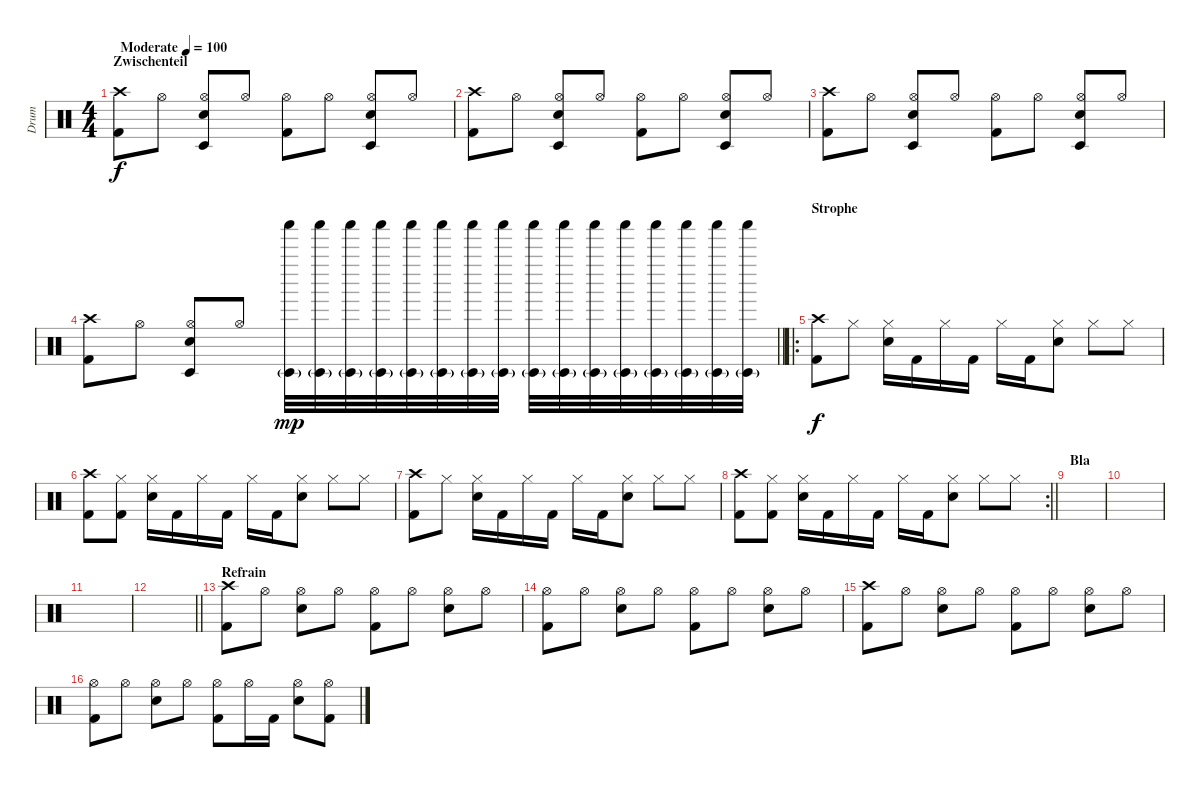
\track ("Drum" "Drum") {instrument percussion}
\staff {score}
\articulation defaults
\ts (4 4)
\section ("" "Zwischenteil")
\tempo (100 "Moderate")
\clef neutral
\ks c
("Crash high (hit)" "Kick (hit) 2").8{dy f} "Hi-Hat (open)".8 ("Hi-Hat (open)" "Electric Snare (hit)" "Timbale low (hit)").8 "Hi-Hat (open)".8 ("Hi-Hat (open)" "Kick (hit) 2").8 "Hi-Hat (open)".8 ("Hi-Hat (open)" "Electric Snare (hit)" "Timbale low (hit)").8 "Hi-Hat (open)".8 |
("Crash high (hit)" "Kick (hit) 2").8 "Hi-Hat (open)".8 ("Hi-Hat (open)" "Electric Snare (hit)" "Timbale low (hit)").8 "Hi-Hat (open)".8 ("Hi-Hat (open)" "Kick (hit) 2").8 "Hi-Hat (open)".8 ("Hi-Hat (open)" "Electric Snare (hit)" "Timbale low (hit)").8 "Hi-Hat (open)".8 |
("Crash high (hit)" "Kick (hit) 2").8 "Hi-Hat (open)".8 ("Hi-Hat (open)" "Electric Snare (hit)" "Timbale low (hit)").8 "Hi-Hat (open)".8 ("Hi-Hat (open)" "Kick (hit) 2").8 "Hi-Hat (open)".8 ("Hi-Hat (open)" "Electric Snare (hit)" "Timbale low (hit)").8 "Hi-Hat (open)".8 |
\barLineRight lightlight
("Crash high (hit)" "Kick (hit) 2").8 "Hi-Hat (open)".8 ("Hi-Hat (open)" "Electric Snare (hit)" "Timbale low (hit)").8 "Hi-Hat (open)".8 ("Timbale low (hit)"{g} "Shaker (hit)").32{dy mp} ("Timbale low (hit)"{g} "Shaker (hit)").32 ("Timbale low (hit)"{g} "Shaker (hit)").32 ("Timbale low (hit)"{g} "Shaker (hit)").32 ("Timbale low (hit)"{g} "Shaker (hit)").32 ("Timbale low (hit)"{g} "Shaker (hit)").32 ("Timbale low (hit)"{g} "Shaker (hit)").32 ("Timbale low (hit)"{g} "Shaker (hit)").32 ("Timbale low (hit)"{g} "Shaker (hit)").32 ("Timbale low (hit)"{g} "Shaker (hit)").32 ("Timbale low (hit)"{g} "Shaker (hit)").32 ("Timbale low (hit)"{g} "Shaker (hit)").32 ("Timbale low (hit)"{g} "Shaker (hit)").32 ("Timbale low (hit)"{g} "Shaker (hit)").32 ("Timbale low (hit)"{g} "Shaker (hit)").32 ("Timbale low (hit)"{g} "Shaker (hit)").32 |
\ro
\section ("" "Strophe")
("Crash high (hit)" "Kick (hit) 2").8{dy f} "Hi-Hat (closed)".8 ("Hi-Hat (closed)" "Electric Snare (hit)").16 "Kick (hit) 2".16 "Hi-Hat (closed)".16 "Kick (hit) 2".16 "Hi-Hat (closed)".16 "Kick (hit) 2".16 ("Hi-Hat (closed)" "Electric Snare (hit)").8 "Hi-Hat (closed)".8 "Hi-Hat (closed)".8 |
("Crash high (hit)" "Kick (hit) 2").8 ("Hi-Hat (closed)" "Kick (hit) 2").8 ("Hi-Hat (closed)" "Electric Snare (hit)").16 "Kick (hit) 2".16 "Hi-Hat (closed)".16 "Kick (hit) 2".16 "Hi-Hat (closed)".16 "Kick (hit) 2".16 ("Hi-Hat (closed)" "Electric Snare (hit)").8 "Hi-Hat (closed)".8 "Hi-Hat (closed)".8 |
("Crash high (hit)" "Kick (hit) 2").8 "Hi-Hat (closed)".8 ("Hi-Hat (closed)" "Electric Snare (hit)").16 "Kick (hit) 2".16 "Hi-Hat (closed)".16 "Kick (hit) 2".16 "Hi-Hat (closed)".16 "Kick (hit) 2".16 ("Hi-Hat (closed)" "Electric Snare (hit)").8 "Hi-Hat (closed)".8 "Hi-Hat (closed)".8 |
\rc 2
\barLineRight lightlight
("Crash high (hit)" "Kick (hit) 2").8 ("Hi-Hat (closed)" "Kick (hit) 2").8 ("Hi-Hat (closed)" "Electric Snare (hit)").16 "Kick (hit) 2".16 "Hi-Hat (closed)".16 "Kick (hit) 2".16 "Hi-Hat (closed)".16 "Kick (hit) 2".16 ("Hi-Hat (closed)" "Electric Snare (hit)").8 "Hi-Hat (closed)".8 "Hi-Hat (closed)".8 |
\section ("" "Bla")
|
|
|
\barLineRight lightlight
|
\section ("" "Refrain")
("Crash high (hit)" "Kick (hit) 2").8 "Hi-Hat (open)".8 ("Hi-Hat (open)" "Electric Snare (hit)").8 "Hi-Hat (open)".8 ("Hi-Hat (open)" "Kick (hit) 2").8 "Hi-Hat (open)".8 ("Hi-Hat (open)" "Electric Snare (hit)").8 "Hi-Hat (open)".8 |
("Hi-Hat (open)" "Kick (hit) 2").8 "Hi-Hat (open)".8 ("Hi-Hat (open)" "Electric Snare (hit)").8 "Hi-Hat (open)".8 ("Hi-Hat (open)" "Kick (hit) 2").8 "Hi-Hat (open)".8 ("Hi-Hat (open)" "Electric Snare (hit)").8 "Hi-Hat (open)".8 |
("Crash high (hit)" "Kick (hit) 2").8 "Hi-Hat (open)".8 ("Hi-Hat (open)" "Electric Snare (hit)").8 "Hi-Hat (open)".8 ("Hi-Hat (open)" "Kick (hit) 2").8 "Hi-Hat (open)".8 ("Hi-Hat (open)" "Electric Snare (hit)").8 "Hi-Hat (open)".8 |
("Hi-Hat (open)" "Kick (hit) 2").8 "Hi-Hat (open)".8 ("Hi-Hat (open)" "Electric Snare (hit)").8 "Hi-Hat (open)".8 ("Hi-Hat (open)" "Kick (hit) 2").8 "Hi-Hat (open)".16 "Kick (hit) 2".16 ("Hi-Hat (open)" "Electric Snare (hit)").8 ("Hi-Hat (open)" "Kick (hit) 2").8
